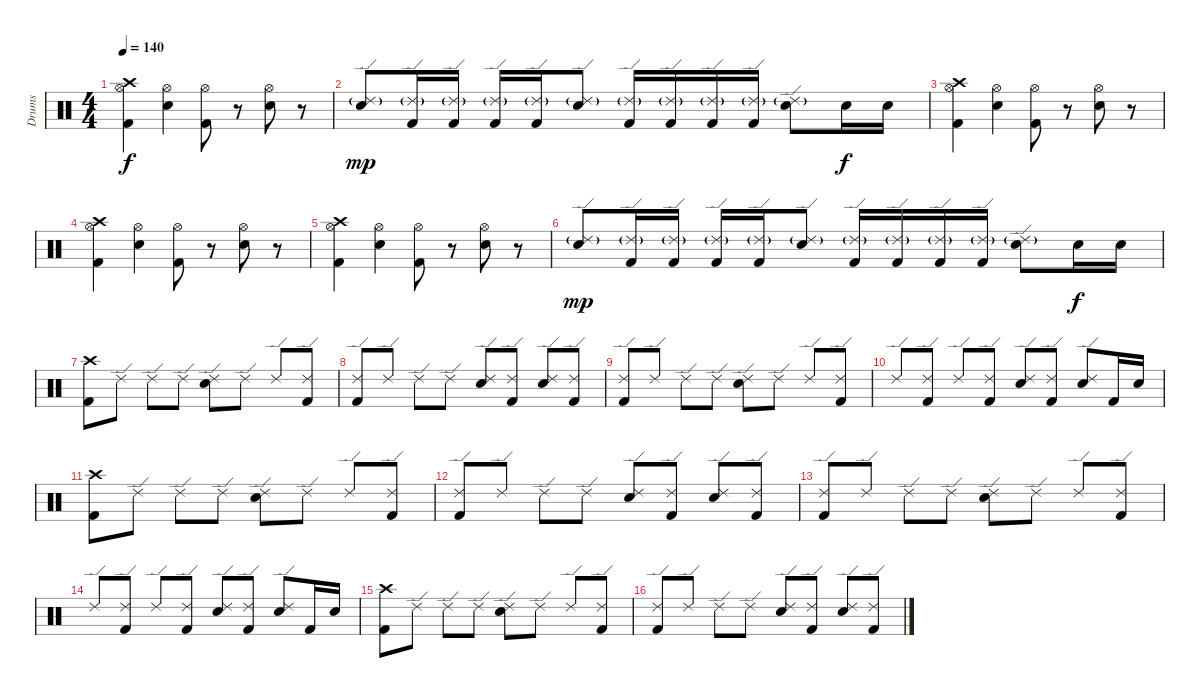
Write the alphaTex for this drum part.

\track ("Drums" "Drums") {instrument percussion}
\staff {score}
\articulation defaults
\ts (4 4)
\tempo 140
\clef neutral
\ks c
("Crash high (hit)" "Hi-Hat (open)" "Kick (hit) 2").4{dy f} ("Hi-Hat (open)" "Snare (hit) 2").4 ("Hi-Hat (open)" "Kick (hit) 2").8 r.8 ("Hi-Hat (open)" "Snare (hit) 2").8 r.8 |
("Ride (edge) 2"{g} "Snare (hit) 2").8{dy mp} ("Ride (edge) 2"{g} "Kick (hit) 2").16 ("Ride (edge) 2"{g} "Kick (hit) 2").16 ("Ride (edge) 2"{g} "Kick (hit) 2").16 ("Ride (edge) 2"{g} "Kick (hit) 2").16 ("Ride (edge) 2"{g} "Snare (hit) 2").8 ("Ride (edge) 2"{g} "Kick (hit) 2").16 ("Ride (edge) 2"{g} "Kick (hit) 2").16 ("Ride (edge) 2"{g} "Kick (hit) 2").16 ("Ride (edge) 2"{g} "Kick (hit) 2").16 ("Ride (edge) 2"{g} "Snare (hit) 2").8 "Snare (hit) 2".16{dy f} "Snare (hit) 2".16 |
("Crash high (hit)" "Hi-Hat (open)" "Kick (hit) 2").4 ("Hi-Hat (open)" "Snare (hit) 2").4 ("Hi-Hat (open)" "Kick (hit) 2").8 r.8 ("Hi-Hat (open)" "Snare (hit) 2").8 r.8 |
("Crash high (hit)" "Hi-Hat (open)" "Kick (hit) 2").4 ("Hi-Hat (open)" "Snare (hit) 2").4 ("Hi-Hat (open)" "Kick (hit) 2").8 r.8 ("Hi-Hat (open)" "Snare (hit) 2").8 r.8 |
("Crash high (hit)" "Hi-Hat (open)" "Kick (hit) 2").4 ("Hi-Hat (open)" "Snare (hit) 2").4 ("Hi-Hat (open)" "Kick (hit) 2").8 r.8 ("Hi-Hat (open)" "Snare (hit) 2").8 r.8 |
("Ride (edge) 2"{g} "Snare (hit) 2").8{dy mp} ("Ride (edge) 2"{g} "Kick (hit) 2").16 ("Ride (edge) 2"{g} "Kick (hit) 2").16 ("Ride (edge) 2"{g} "Kick (hit) 2").16 ("Ride (edge) 2"{g} "Kick (hit) 2").16 ("Ride (edge) 2"{g} "Snare (hit) 2").8 ("Ride (edge) 2"{g} "Kick (hit) 2").16 ("Ride (edge) 2"{g} "Kick (hit) 2").16 ("Ride (edge) 2"{g} "Kick (hit) 2").16 ("Ride (edge) 2"{g} "Kick (hit) 2").16 ("Ride (edge) 2"{g} "Snare (hit) 2").8 "Snare (hit) 2".16{dy f} "Snare (hit) 2".16 |
("Crash high (hit)" "Kick (hit) 2").8 "Ride (edge) 2".8 "Ride (edge) 2".8 "Ride (edge) 2".8 ("Ride (edge) 2" "Snare (hit) 2").8 "Ride (edge) 2".8 "Ride (edge) 2".8 ("Ride (edge) 2" "Kick (hit) 2").8 |
("Ride (edge) 2" "Kick (hit) 2").8 "Ride (edge) 2".8 "Ride (edge) 2".8 "Ride (edge) 2".8 ("Ride (edge) 2" "Snare (hit) 2").8 ("Ride (edge) 2" "Kick (hit) 2").8 ("Ride (edge) 2" "Snare (hit) 2").8 ("Ride (edge) 2" "Kick (hit) 2").8 |
("Ride (edge) 2" "Kick (hit) 2").8 "Ride (edge) 2".8 "Ride (edge) 2".8 "Ride (edge) 2".8 ("Ride (edge) 2" "Snare (hit) 2").8 "Ride (edge) 2".8 "Ride (edge) 2".8 ("Ride (edge) 2" "Kick (hit) 2").8 |
"Ride (edge) 2".8 ("Ride (edge) 2" "Kick (hit) 2").8 "Ride (edge) 2".8 ("Ride (edge) 2" "Kick (hit) 2").8 ("Ride (edge) 2" "Snare (hit) 2").8 ("Ride (edge) 2" "Kick (hit) 2").8 ("Ride (edge) 2" "Snare (hit) 2").8 "Kick (hit) 2".16 "Snare (hit) 2".16 |
("Crash high (hit)" "Kick (hit) 2").8 "Ride (edge) 2".8 "Ride (edge) 2".8 "Ride (edge) 2".8 ("Ride (edge) 2" "Snare (hit) 2").8 "Ride (edge) 2".8 "Ride (edge) 2".8 ("Ride (edge) 2" "Kick (hit) 2").8 |
("Ride (edge) 2" "Kick (hit) 2").8 "Ride (edge) 2".8 "Ride (edge) 2".8 "Ride (edge) 2".8 ("Ride (edge) 2" "Snare (hit) 2").8 ("Ride (edge) 2" "Kick (hit) 2").8 ("Ride (edge) 2" "Snare (hit) 2").8 ("Ride (edge) 2" "Kick (hit) 2").8 |
("Ride (edge) 2" "Kick (hit) 2").8 "Ride (edge) 2".8 "Ride (edge) 2".8 "Ride (edge) 2".8 ("Ride (edge) 2" "Snare (hit) 2").8 "Ride (edge) 2".8 "Ride (edge) 2".8 ("Ride (edge) 2" "Kick (hit) 2").8 |
"Ride (edge) 2".8 ("Ride (edge) 2" "Kick (hit) 2").8 "Ride (edge) 2".8 ("Ride (edge) 2" "Kick (hit) 2").8 ("Ride (edge) 2" "Snare (hit) 2").8 ("Ride (edge) 2" "Kick (hit) 2").8 ("Ride (edge) 2" "Snare (hit) 2").8 "Kick (hit) 2".16 "Snare (hit) 2".16 |
("Crash high (hit)" "Kick (hit) 2").8 "Ride (edge) 2".8 "Ride (edge) 2".8 "Ride (edge) 2".8 ("Ride (edge) 2" "Snare (hit) 2").8 "Ride (edge) 2".8 "Ride (edge) 2".8 ("Ride (edge) 2" "Kick (hit) 2").8 |
("Ride (edge) 2" "Kick (hit) 2").8 "Ride (edge) 2".8 "Ride (edge) 2".8 "Ride (edge) 2".8 ("Ride (edge) 2" "Snare (hit) 2").8 ("Ride (edge) 2" "Kick (hit) 2").8 ("Ride (edge) 2" "Snare (hit) 2").8 ("Ride (edge) 2" "Kick (hit) 2").8
